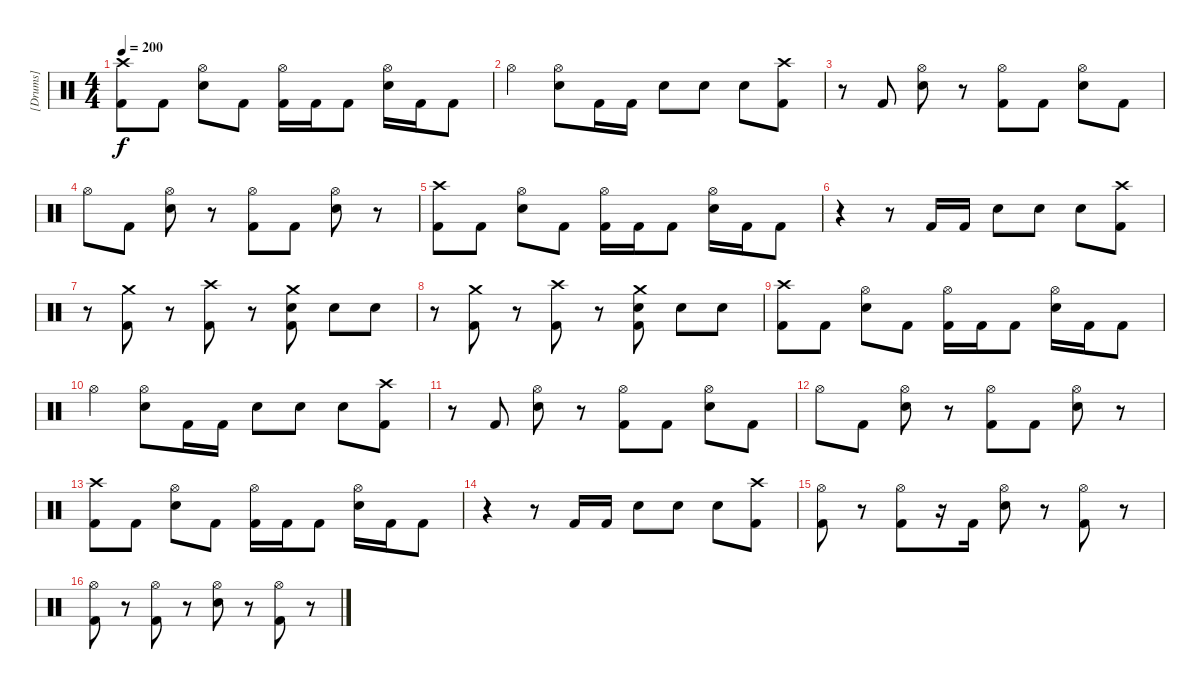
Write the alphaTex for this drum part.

\track ("[Drums]" "[Drums]") {instrument percussion}
\staff {score}
\articulation defaults
\ts (4 4)
\tempo 200
\clef neutral
\ks c
("Crash high (hit)" "Kick (hit) 2").8{dy f} "Kick (hit) 2".8 ("Hi-Hat (open)" "Electric Snare (hit)").8 "Kick (hit) 2".8 ("Hi-Hat (open)" "Kick (hit) 2").16 "Kick (hit) 2".16 "Kick (hit) 2".8 ("Hi-Hat (open)" "Electric Snare (hit)").16 "Kick (hit) 2".16 "Kick (hit) 2".8 |
"Hi-Hat (open)".4 ("Hi-Hat (open)" "Electric Snare (hit)").8 "Kick (hit) 2".16 "Kick (hit) 2".16 "Electric Snare (hit)".8 "Electric Snare (hit)".8 "Electric Snare (hit)".8 ("Crash high (hit)" "Kick (hit) 2").8 |
r.8 "Kick (hit) 2".8 ("Hi-Hat (open)" "Electric Snare (hit)").8 r.8 ("Hi-Hat (open)" "Kick (hit) 2").8 "Kick (hit) 2".8 ("Hi-Hat (open)" "Electric Snare (hit)").8 "Kick (hit) 2".8 |
"Hi-Hat (open)".8 "Kick (hit) 2".8 ("Hi-Hat (open)" "Electric Snare (hit)").8 r.8 ("Hi-Hat (open)" "Kick (hit) 2").8 "Kick (hit) 2".8 ("Hi-Hat (open)" "Electric Snare (hit)").8 r.8 |
("Crash high (hit)" "Kick (hit) 2").8 "Kick (hit) 2".8 ("Hi-Hat (open)" "Electric Snare (hit)").8 "Kick (hit) 2".8 ("Hi-Hat (open)" "Kick (hit) 2").16 "Kick (hit) 2".16 "Kick (hit) 2".8 ("Hi-Hat (open)" "Electric Snare (hit)").16 "Kick (hit) 2".16 "Kick (hit) 2".8 |
r.4 r.8 "Kick (hit) 2".16 "Kick (hit) 2".16 "Electric Snare (hit)".8 "Electric Snare (hit)".8 "Electric Snare (hit)".8 ("Crash high (hit)" "Kick (hit) 2").8 |
r.8 ("Crash medium (hit)" "Kick (hit) 2").8 r.8 ("Crash high (hit)" "Kick (hit) 2").8 r.8 ("Crash medium (hit)" "Electric Snare (hit)" "Kick (hit) 2").8 "Electric Snare (hit)".8 "Electric Snare (hit)".8 |
r.8 ("Crash medium (hit)" "Kick (hit) 2").8 r.8 ("Crash high (hit)" "Kick (hit) 2").8 r.8 ("Crash medium (hit)" "Electric Snare (hit)" "Kick (hit) 2").8 "Electric Snare (hit)".8 "Electric Snare (hit)".8 |
("Crash high (hit)" "Kick (hit) 2").8 "Kick (hit) 2".8 ("Hi-Hat (open)" "Electric Snare (hit)").8 "Kick (hit) 2".8 ("Hi-Hat (open)" "Kick (hit) 2").16 "Kick (hit) 2".16 "Kick (hit) 2".8 ("Hi-Hat (open)" "Electric Snare (hit)").16 "Kick (hit) 2".16 "Kick (hit) 2".8 |
"Hi-Hat (open)".4 ("Hi-Hat (open)" "Electric Snare (hit)").8 "Kick (hit) 2".16 "Kick (hit) 2".16 "Electric Snare (hit)".8 "Electric Snare (hit)".8 "Electric Snare (hit)".8 ("Crash high (hit)" "Kick (hit) 2").8 |
r.8 "Kick (hit) 2".8 ("Hi-Hat (open)" "Electric Snare (hit)").8 r.8 ("Hi-Hat (open)" "Kick (hit) 2").8 "Kick (hit) 2".8 ("Hi-Hat (open)" "Electric Snare (hit)").8 "Kick (hit) 2".8 |
"Hi-Hat (open)".8 "Kick (hit) 2".8 ("Hi-Hat (open)" "Electric Snare (hit)").8 r.8 ("Hi-Hat (open)" "Kick (hit) 2").8 "Kick (hit) 2".8 ("Hi-Hat (open)" "Electric Snare (hit)").8 r.8 |
("Crash high (hit)" "Kick (hit) 2").8 "Kick (hit) 2".8 ("Hi-Hat (open)" "Electric Snare (hit)").8 "Kick (hit) 2".8 ("Hi-Hat (open)" "Kick (hit) 2").16 "Kick (hit) 2".16 "Kick (hit) 2".8 ("Hi-Hat (open)" "Electric Snare (hit)").16 "Kick (hit) 2".16 "Kick (hit) 2".8 |
r.4 r.8 "Kick (hit) 2".16 "Kick (hit) 2".16 "Electric Snare (hit)".8 "Electric Snare (hit)".8 "Electric Snare (hit)".8 ("Crash high (hit)" "Kick (hit) 2").8 |
("Hi-Hat (open)" "Kick (hit) 2").8 r.8 ("Hi-Hat (open)" "Kick (hit) 2").8 r.16 "Kick (hit) 2".16 ("Hi-Hat (open)" "Electric Snare (hit)").8 r.8 ("Hi-Hat (open)" "Kick (hit) 2").8 r.8 |
("Hi-Hat (open)" "Kick (hit) 2").8 r.8 ("Hi-Hat (open)" "Kick (hit) 2").8 r.8 ("Hi-Hat (open)" "Electric Snare (hit)").8 r.8 ("Hi-Hat (open)" "Kick (hit) 2").8 r.8
